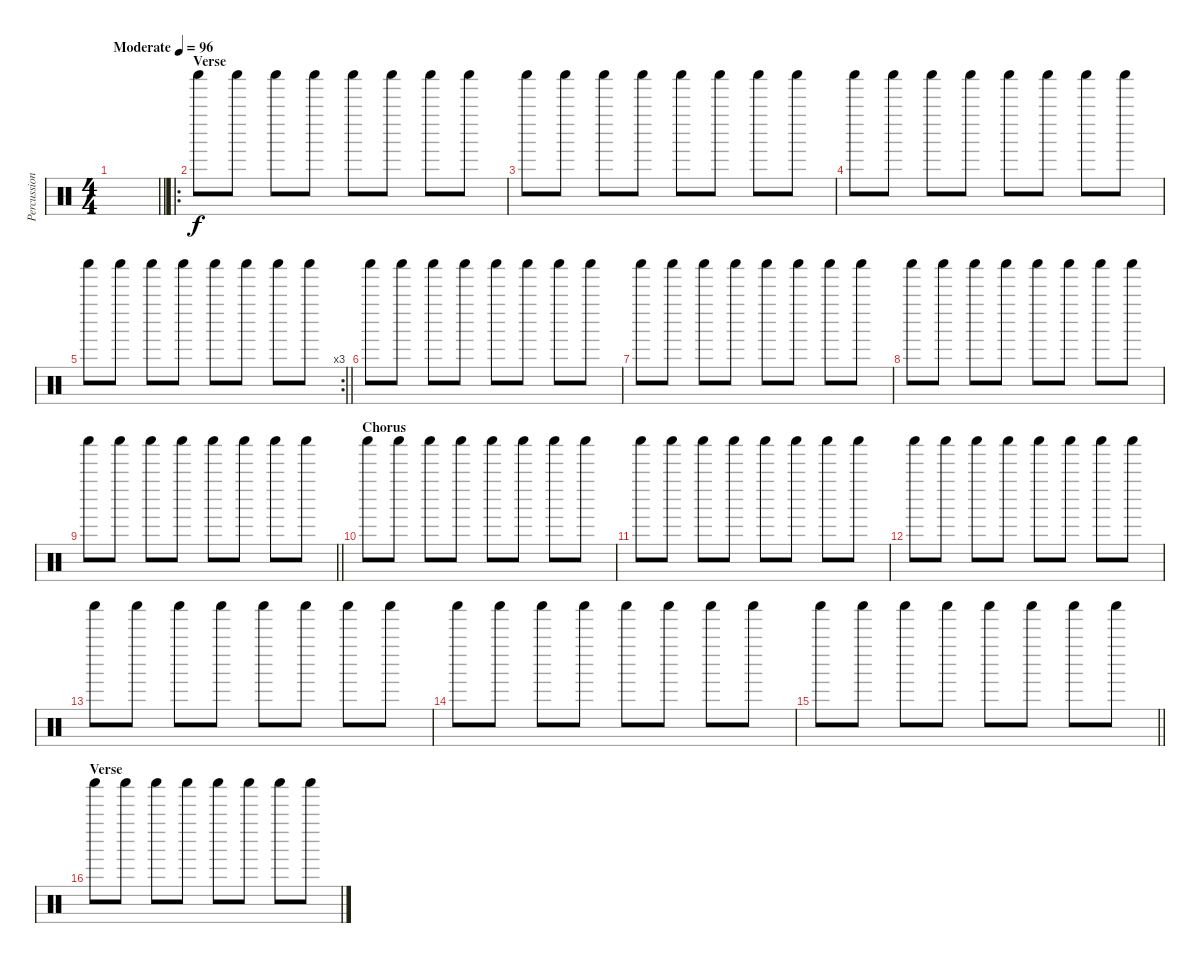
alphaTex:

\track ("Percussion" "Percussion") {instrument percussion}
\staff {score}
\articulation defaults
\ts (4 4)
\tempo (96 "Moderate")
\clef neutral
\barLineRight lightlight
\ks c
|
\ro
\section ("" "Verse")
"Shaker (hit)".8 "Shaker (hit)".8 "Shaker (hit)".8 "Shaker (hit)".8 "Shaker (hit)".8 "Shaker (hit)".8 "Shaker (hit)".8 "Shaker (hit)".8 |
"Shaker (hit)".8 "Shaker (hit)".8 "Shaker (hit)".8 "Shaker (hit)".8 "Shaker (hit)".8 "Shaker (hit)".8 "Shaker (hit)".8 "Shaker (hit)".8 |
"Shaker (hit)".8 "Shaker (hit)".8 "Shaker (hit)".8 "Shaker (hit)".8 "Shaker (hit)".8 "Shaker (hit)".8 "Shaker (hit)".8 "Shaker (hit)".8 |
\rc 3
\barLineRight lightlight "Shaker (hit)".8 "Shaker (hit)".8 "Shaker (hit)".8 "Shaker (hit)".8 "Shaker (hit)".8 "Shaker (hit)".8 "Shaker (hit)".8 "Shaker (hit)".8
|
"Shaker (hit)".8 "Shaker (hit)".8 "Shaker (hit)".8 "Shaker (hit)".8 "Shaker (hit)".8 "Shaker (hit)".8 "Shaker (hit)".8 "Shaker (hit)".8 |
"Shaker (hit)".8 "Shaker (hit)".8 "Shaker (hit)".8 "Shaker (hit)".8 "Shaker (hit)".8 "Shaker (hit)".8 "Shaker (hit)".8 "Shaker (hit)".8 |
"Shaker (hit)".8 "Shaker (hit)".8 "Shaker (hit)".8 "Shaker (hit)".8 "Shaker (hit)".8 "Shaker (hit)".8 "Shaker (hit)".8 "Shaker (hit)".8 |
\barLineRight lightlight "Shaker (hit)".8 "Shaker (hit)".8 "Shaker (hit)".8 "Shaker (hit)".8 "Shaker (hit)".8 "Shaker (hit)".8 "Shaker (hit)".8 "Shaker (hit)".8
|
\section ("" "Chorus")
"Shaker (hit)".8 "Shaker (hit)".8 "Shaker (hit)".8 "Shaker (hit)".8 "Shaker (hit)".8 "Shaker (hit)".8 "Shaker (hit)".8 "Shaker (hit)".8 |
"Shaker (hit)".8 "Shaker (hit)".8 "Shaker (hit)".8 "Shaker (hit)".8 "Shaker (hit)".8 "Shaker (hit)".8 "Shaker (hit)".8 "Shaker (hit)".8 |
"Shaker (hit)".8 "Shaker (hit)".8 "Shaker (hit)".8 "Shaker (hit)".8 "Shaker (hit)".8 "Shaker (hit)".8 "Shaker (hit)".8 "Shaker (hit)".8 |
"Shaker (hit)".8 "Shaker (hit)".8 "Shaker (hit)".8 "Shaker (hit)".8 "Shaker (hit)".8 "Shaker (hit)".8 "Shaker (hit)".8 "Shaker (hit)".8 |
"Shaker (hit)".8 "Shaker (hit)".8 "Shaker (hit)".8 "Shaker (hit)".8 "Shaker (hit)".8 "Shaker (hit)".8 "Shaker (hit)".8 "Shaker (hit)".8 |
\barLineRight lightlight "Shaker (hit)".8 "Shaker (hit)".8 "Shaker (hit)".8 "Shaker (hit)".8 "Shaker (hit)".8 "Shaker (hit)".8 "Shaker (hit)".8 "Shaker (hit)".8
|
\section ("" "Verse")
"Shaker (hit)".8 "Shaker (hit)".8 "Shaker (hit)".8 "Shaker (hit)".8 "Shaker (hit)".8 "Shaker (hit)".8 "Shaker (hit)".8 "Shaker (hit)".8
